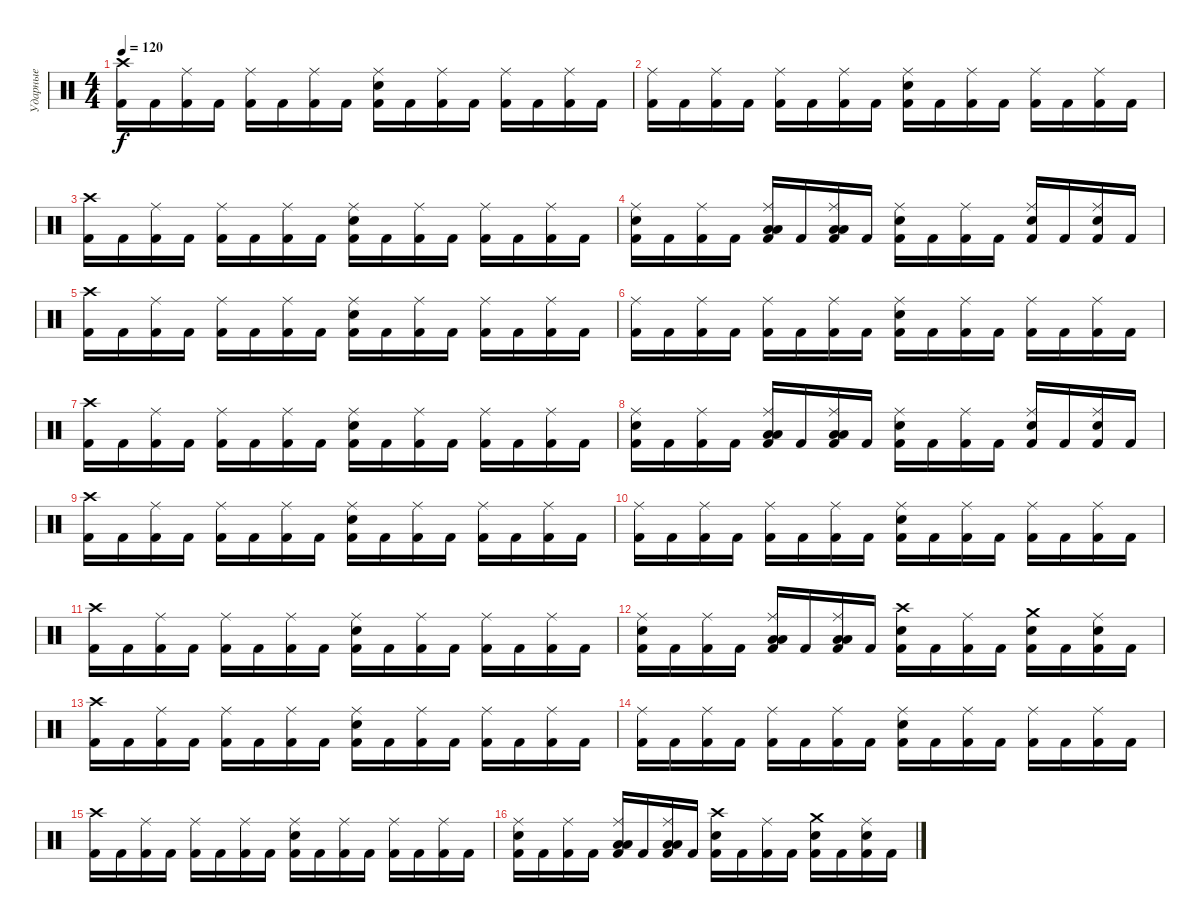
\track ("Ударные" "Ударные") {instrument percussion}
\staff {score}
\articulation defaults
\ts (4 4)
\tempo 120
\clef neutral
\ks c
("Crash high (hit)" "Kick (hit) 2").16{dy f} "Kick (hit) 2".16 ("Ride (middle)" "Kick (hit) 2").16 "Kick (hit) 2".16 ("Ride (middle)" "Kick (hit) 2").16 "Kick (hit) 2".16 ("Ride (middle)" "Kick (hit) 2").16 "Kick (hit) 2".16 ("Ride (middle)" "Snare (hit) 2" "Kick (hit) 2").16 "Kick (hit) 2".16 ("Ride (middle)" "Kick (hit) 2").16 "Kick (hit) 2".16 ("Ride (middle)" "Kick (hit) 2").16 "Kick (hit) 2".16 ("Ride (middle)" "Kick (hit) 2").16 "Kick (hit) 2".16 |
("Ride (middle)" "Kick (hit) 2").16 "Kick (hit) 2".16 ("Ride (middle)" "Kick (hit) 2").16 "Kick (hit) 2".16 ("Ride (middle)" "Kick (hit) 2").16 "Kick (hit) 2".16 ("Ride (middle)" "Kick (hit) 2").16 "Kick (hit) 2".16 ("Ride (middle)" "Snare (hit) 2" "Kick (hit) 2").16 "Kick (hit) 2".16 ("Ride (middle)" "Kick (hit) 2").16 "Kick (hit) 2".16 ("Ride (middle)" "Kick (hit) 2").16 "Kick (hit) 2".16 ("Ride (middle)" "Kick (hit) 2").16 "Kick (hit) 2".16 |
("Crash high (hit)" "Kick (hit) 2").16 "Kick (hit) 2".16 ("Ride (middle)" "Kick (hit) 2").16 "Kick (hit) 2".16 ("Ride (middle)" "Kick (hit) 2").16 "Kick (hit) 2".16 ("Ride (middle)" "Kick (hit) 2").16 "Kick (hit) 2".16 ("Ride (middle)" "Snare (hit) 2" "Kick (hit) 2").16 "Kick (hit) 2".16 ("Ride (middle)" "Kick (hit) 2").16 "Kick (hit) 2".16 ("Ride (middle)" "Kick (hit) 2").16 "Kick (hit) 2".16 ("Ride (middle)" "Kick (hit) 2").16 "Kick (hit) 2".16 |
("Ride (middle)" "Snare (hit) 2" "Kick (hit) 2").16 "Kick (hit) 2".16 ("Ride (middle)" "Kick (hit) 2").16 "Kick (hit) 2".16 ("Ride (middle)" "Low Tom (hit)" "Low Tom (hit)" "Kick (hit) 2").16 "Kick (hit) 2".16 ("Ride (middle)" "Low Floor Tom (hit)" "Low Floor Tom (hit)" "Kick (hit) 2").16 "Kick (hit) 2".16 ("Ride (middle)" "Snare (hit) 2" "Kick (hit) 2").16 "Kick (hit) 2".16 ("Ride (middle)" "Kick (hit) 2").16 "Kick (hit) 2".16 ("Ride (middle)" "Snare (hit) 2" "Kick (hit) 2").16 "Kick (hit) 2".16 ("Ride (middle)" "Snare (hit) 2" "Kick (hit) 2").16 "Kick (hit) 2".16 |
("Crash high (hit)" "Kick (hit) 2").16 "Kick (hit) 2".16 ("Ride (middle)" "Kick (hit) 2").16 "Kick (hit) 2".16 ("Ride (middle)" "Kick (hit) 2").16 "Kick (hit) 2".16 ("Ride (middle)" "Kick (hit) 2").16 "Kick (hit) 2".16 ("Ride (middle)" "Snare (hit) 2" "Kick (hit) 2").16 "Kick (hit) 2".16 ("Ride (middle)" "Kick (hit) 2").16 "Kick (hit) 2".16 ("Ride (middle)" "Kick (hit) 2").16 "Kick (hit) 2".16 ("Ride (middle)" "Kick (hit) 2").16 "Kick (hit) 2".16 |
("Ride (middle)" "Kick (hit) 2").16 "Kick (hit) 2".16 ("Ride (middle)" "Kick (hit) 2").16 "Kick (hit) 2".16 ("Ride (middle)" "Kick (hit) 2").16 "Kick (hit) 2".16 ("Ride (middle)" "Kick (hit) 2").16 "Kick (hit) 2".16 ("Ride (middle)" "Snare (hit) 2" "Kick (hit) 2").16 "Kick (hit) 2".16 ("Ride (middle)" "Kick (hit) 2").16 "Kick (hit) 2".16 ("Ride (middle)" "Kick (hit) 2").16 "Kick (hit) 2".16 ("Ride (middle)" "Kick (hit) 2").16 "Kick (hit) 2".16 |
("Crash high (hit)" "Kick (hit) 2").16 "Kick (hit) 2".16 ("Ride (middle)" "Kick (hit) 2").16 "Kick (hit) 2".16 ("Ride (middle)" "Kick (hit) 2").16 "Kick (hit) 2".16 ("Ride (middle)" "Kick (hit) 2").16 "Kick (hit) 2".16 ("Ride (middle)" "Snare (hit) 2" "Kick (hit) 2").16 "Kick (hit) 2".16 ("Ride (middle)" "Kick (hit) 2").16 "Kick (hit) 2".16 ("Ride (middle)" "Kick (hit) 2").16 "Kick (hit) 2".16 ("Ride (middle)" "Kick (hit) 2").16 "Kick (hit) 2".16 |
("Ride (middle)" "Snare (hit) 2" "Kick (hit) 2").16 "Kick (hit) 2".16 ("Ride (middle)" "Kick (hit) 2").16 "Kick (hit) 2".16 ("Ride (middle)" "Low Tom (hit)" "Low Tom (hit)" "Kick (hit) 2").16 "Kick (hit) 2".16 ("Ride (middle)" "Low Floor Tom (hit)" "Low Floor Tom (hit)" "Kick (hit) 2").16 "Kick (hit) 2".16 ("Ride (middle)" "Snare (hit) 2" "Kick (hit) 2").16 "Kick (hit) 2".16 ("Ride (middle)" "Kick (hit) 2").16 "Kick (hit) 2".16 ("Ride (middle)" "Snare (hit) 2" "Kick (hit) 2").16 "Kick (hit) 2".16 ("Ride (middle)" "Snare (hit) 2" "Kick (hit) 2").16 "Kick (hit) 2".16 |
("Crash high (hit)" "Kick (hit) 2").16 "Kick (hit) 2".16 ("Ride (middle)" "Kick (hit) 2").16 "Kick (hit) 2".16 ("Ride (middle)" "Kick (hit) 2").16 "Kick (hit) 2".16 ("Ride (middle)" "Kick (hit) 2").16 "Kick (hit) 2".16 ("Ride (middle)" "Snare (hit) 2" "Kick (hit) 2").16 "Kick (hit) 2".16 ("Ride (middle)" "Kick (hit) 2").16 "Kick (hit) 2".16 ("Ride (middle)" "Kick (hit) 2").16 "Kick (hit) 2".16 ("Ride (middle)" "Kick (hit) 2").16 "Kick (hit) 2".16 |
("Ride (middle)" "Kick (hit) 2").16 "Kick (hit) 2".16 ("Ride (middle)" "Kick (hit) 2").16 "Kick (hit) 2".16 ("Ride (middle)" "Kick (hit) 2").16 "Kick (hit) 2".16 ("Ride (middle)" "Kick (hit) 2").16 "Kick (hit) 2".16 ("Ride (middle)" "Snare (hit) 2" "Kick (hit) 2").16 "Kick (hit) 2".16 ("Ride (middle)" "Kick (hit) 2").16 "Kick (hit) 2".16 ("Ride (middle)" "Kick (hit) 2").16 "Kick (hit) 2".16 ("Ride (middle)" "Kick (hit) 2").16 "Kick (hit) 2".16 |
("Crash high (hit)" "Kick (hit) 2").16 "Kick (hit) 2".16 ("Ride (middle)" "Kick (hit) 2").16 "Kick (hit) 2".16 ("Ride (middle)" "Kick (hit) 2").16 "Kick (hit) 2".16 ("Ride (middle)" "Kick (hit) 2").16 "Kick (hit) 2".16 ("Ride (middle)" "Snare (hit) 2" "Kick (hit) 2").16 "Kick (hit) 2".16 ("Ride (middle)" "Kick (hit) 2").16 "Kick (hit) 2".16 ("Ride (middle)" "Kick (hit) 2").16 "Kick (hit) 2".16 ("Ride (middle)" "Kick (hit) 2").16 "Kick (hit) 2".16 |
("Ride (middle)" "Snare (hit) 2" "Kick (hit) 2").16 "Kick (hit) 2".16 ("Ride (middle)" "Kick (hit) 2").16 "Kick (hit) 2".16 ("Ride (middle)" "Low Tom (hit)" "Low Tom (hit)" "Kick (hit) 2").16 "Kick (hit) 2".16 ("Ride (middle)" "Low Floor Tom (hit)" "Low Floor Tom (hit)" "Kick (hit) 2").16 "Kick (hit) 2".16 ("Crash high (hit)" "Snare (hit) 2" "Kick (hit) 2").16 "Kick (hit) 2".16 ("Ride (middle)" "Kick (hit) 2").16 "Kick (hit) 2".16 ("Crash medium (hit)" "Snare (hit) 2" "Kick (hit) 2").16 "Kick (hit) 2".16 ("Ride (middle)" "Snare (hit) 2" "Kick (hit) 2").16 "Kick (hit) 2".16 |
("Crash high (hit)" "Kick (hit) 2").16 "Kick (hit) 2".16 ("Ride (middle)" "Kick (hit) 2").16 "Kick (hit) 2".16 ("Ride (middle)" "Kick (hit) 2").16 "Kick (hit) 2".16 ("Ride (middle)" "Kick (hit) 2").16 "Kick (hit) 2".16 ("Ride (middle)" "Snare (hit) 2" "Kick (hit) 2").16 "Kick (hit) 2".16 ("Ride (middle)" "Kick (hit) 2").16 "Kick (hit) 2".16 ("Ride (middle)" "Kick (hit) 2").16 "Kick (hit) 2".16 ("Ride (middle)" "Kick (hit) 2").16 "Kick (hit) 2".16 |
("Ride (middle)" "Kick (hit) 2").16 "Kick (hit) 2".16 ("Ride (middle)" "Kick (hit) 2").16 "Kick (hit) 2".16 ("Ride (middle)" "Kick (hit) 2").16 "Kick (hit) 2".16 ("Ride (middle)" "Kick (hit) 2").16 "Kick (hit) 2".16 ("Ride (middle)" "Snare (hit) 2" "Kick (hit) 2").16 "Kick (hit) 2".16 ("Ride (middle)" "Kick (hit) 2").16 "Kick (hit) 2".16 ("Ride (middle)" "Kick (hit) 2").16 "Kick (hit) 2".16 ("Ride (middle)" "Kick (hit) 2").16 "Kick (hit) 2".16 |
("Crash high (hit)" "Kick (hit) 2").16 "Kick (hit) 2".16 ("Ride (middle)" "Kick (hit) 2").16 "Kick (hit) 2".16 ("Ride (middle)" "Kick (hit) 2").16 "Kick (hit) 2".16 ("Ride (middle)" "Kick (hit) 2").16 "Kick (hit) 2".16 ("Ride (middle)" "Snare (hit) 2" "Kick (hit) 2").16 "Kick (hit) 2".16 ("Ride (middle)" "Kick (hit) 2").16 "Kick (hit) 2".16 ("Ride (middle)" "Kick (hit) 2").16 "Kick (hit) 2".16 ("Ride (middle)" "Kick (hit) 2").16 "Kick (hit) 2".16 |
("Ride (middle)" "Snare (hit) 2" "Kick (hit) 2").16 "Kick (hit) 2".16 ("Ride (middle)" "Kick (hit) 2").16 "Kick (hit) 2".16 ("Ride (middle)" "Low Tom (hit)" "Low Tom (hit)" "Kick (hit) 2").16 "Kick (hit) 2".16 ("Ride (middle)" "Low Floor Tom (hit)" "Low Floor Tom (hit)" "Kick (hit) 2").16 "Kick (hit) 2".16 ("Crash high (hit)" "Snare (hit) 2" "Kick (hit) 2").16 "Kick (hit) 2".16 ("Ride (middle)" "Kick (hit) 2").16 "Kick (hit) 2".16 ("Crash medium (hit)" "Snare (hit) 2" "Kick (hit) 2").16 "Kick (hit) 2".16 ("Ride (middle)" "Snare (hit) 2" "Kick (hit) 2").16 "Kick (hit) 2".16
